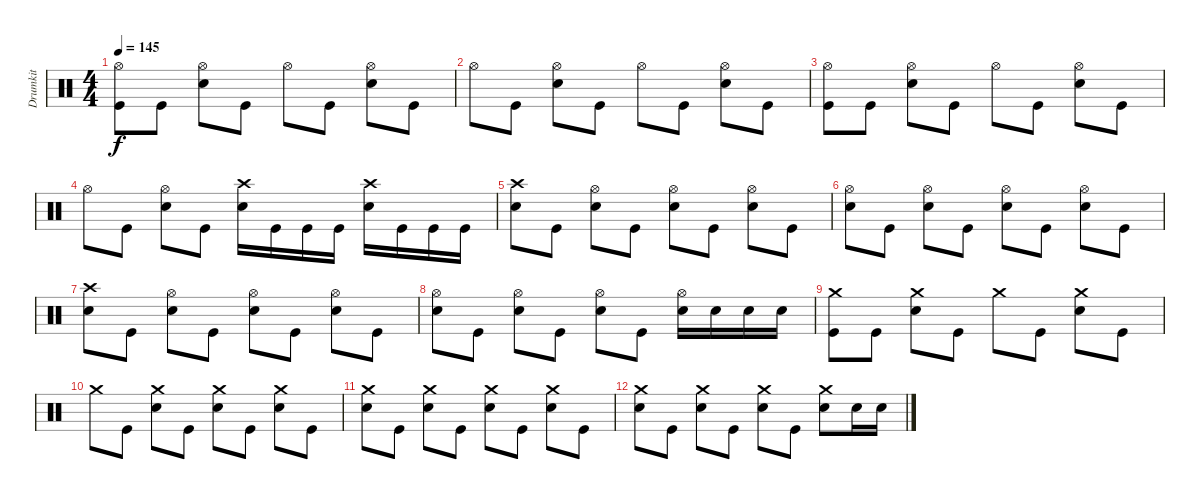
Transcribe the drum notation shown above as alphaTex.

\track ("Drumkit" "Drumkit") {instrument percussion}
\staff {score}
\articulation defaults
\ts (4 4)
\tempo 145
\clef neutral
\ks c
("Kick (hit)" "Hi-Hat (open)").8{dy f} "Kick (hit)".8 ("Snare (hit) 2" "Hi-Hat (open)").8 "Kick (hit)".8 "Hi-Hat (open)".8 "Kick (hit)".8 ("Snare (hit) 2" "Hi-Hat (open)").8 "Kick (hit)".8 |
"Hi-Hat (open)".8 "Kick (hit)".8 ("Snare (hit) 2" "Hi-Hat (open)").8 "Kick (hit)".8 "Hi-Hat (open)".8 "Kick (hit)".8 ("Snare (hit) 2" "Hi-Hat (open)").8 "Kick (hit)".8 |
("Kick (hit)" "Hi-Hat (open)").8 "Kick (hit)".8 ("Snare (hit) 2" "Hi-Hat (open)").8 "Kick (hit)".8 "Hi-Hat (open)".8 "Kick (hit)".8 ("Snare (hit) 2" "Hi-Hat (open)").8 "Kick (hit)".8 |
"Hi-Hat (open)".8 "Kick (hit)".8 ("Snare (hit) 2" "Hi-Hat (open)").8 "Kick (hit)".8 ("Snare (hit) 2" "Crash high (hit)").16 "Kick (hit)".16 "Kick (hit)".16 "Kick (hit)".16 ("Snare (hit) 2" "Crash high (hit)").16 "Kick (hit)".16 "Kick (hit)".16 "Kick (hit)".16 |
("Snare (hit) 2" "Crash high (hit)").8 "Kick (hit)".8 ("Snare (hit) 2" "Hi-Hat (open)").8 "Kick (hit)".8 ("Snare (hit) 2" "Hi-Hat (open)").8 "Kick (hit)".8 ("Snare (hit) 2" "Hi-Hat (open)").8 "Kick (hit)".8 |
("Snare (hit) 2" "Hi-Hat (open)").8 "Kick (hit)".8 ("Snare (hit) 2" "Hi-Hat (open)").8 "Kick (hit)".8 ("Snare (hit) 2" "Hi-Hat (open)").8 "Kick (hit)".8 ("Snare (hit) 2" "Hi-Hat (open)").8 "Kick (hit)".8 |
("Snare (hit) 2" "Crash high (hit)").8 "Kick (hit)".8 ("Snare (hit) 2" "Hi-Hat (open)").8 "Kick (hit)".8 ("Snare (hit) 2" "Hi-Hat (open)").8 "Kick (hit)".8 ("Snare (hit) 2" "Hi-Hat (open)").8 "Kick (hit)".8 |
("Snare (hit) 2" "Hi-Hat (open)").8 "Kick (hit)".8 ("Snare (hit) 2" "Hi-Hat (open)").8 "Kick (hit)".8 ("Snare (hit) 2" "Hi-Hat (open)").8 "Kick (hit)".8 ("Snare (hit) 2" "Hi-Hat (open)").16 "Snare (hit) 2".16 "Snare (hit) 2".16 "Snare (hit) 2".16 |
("Kick (hit)" "Crash medium (hit)").8 "Kick (hit)".8 ("Snare (hit) 2" "Crash medium (hit)").8 "Kick (hit)".8 "Crash medium (hit)".8 "Kick (hit)".8 ("Snare (hit) 2" "Crash medium (hit)").8 "Kick (hit)".8 |
"Crash medium (hit)".8 "Kick (hit)".8 ("Snare (hit) 2" "Crash medium (hit)").8 "Kick (hit)".8 ("Crash medium (hit)" "Snare (hit) 2").8 "Kick (hit)".8 ("Snare (hit) 2" "Crash medium (hit)").8 "Kick (hit)".8 |
("Snare (hit) 2" "Crash medium (hit)").8 "Kick (hit)".8 ("Snare (hit) 2" "Crash medium (hit)").8 "Kick (hit)".8 ("Snare (hit) 2" "Crash medium (hit)").8 "Kick (hit)".8 ("Snare (hit) 2" "Crash medium (hit)").8 "Kick (hit)".8 |
("Snare (hit) 2" "Crash medium (hit)").8 "Kick (hit)".8 ("Snare (hit) 2" "Crash medium (hit)").8 "Kick (hit)".8 ("Snare (hit) 2" "Crash medium (hit)").8 "Kick (hit)".8 ("Snare (hit) 2" "Crash medium (hit)").8 "Snare (hit) 2".16 "Snare (hit) 2".16
